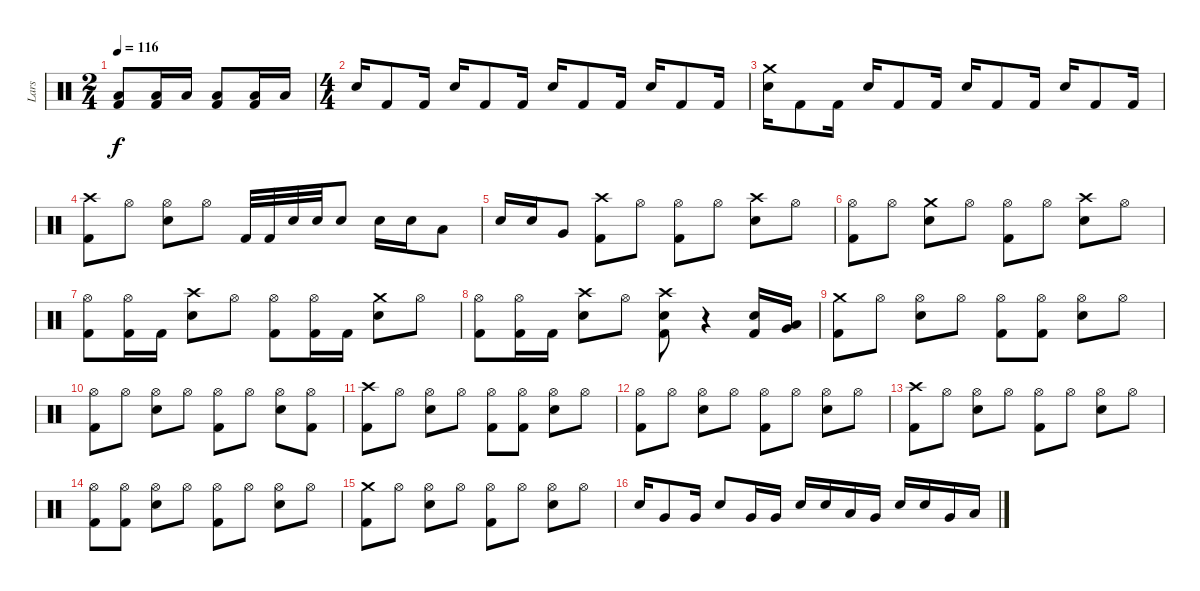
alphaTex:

\track ("Lars" "Lars") {instrument percussion}
\staff {score}
\articulation defaults
\ts (2 4)
\tempo 116
\clef neutral
\ks c
("Kick (hit) 2" "Low Floor Tom (hit)").8{dy f} ("Kick (hit) 2" "Low Floor Tom (hit)").16 "Low Floor Tom (hit)".16 ("Kick (hit) 2" "Low Floor Tom (hit)").8 ("Kick (hit) 2" "Low Floor Tom (hit)").16 "Low Floor Tom (hit)".16 |
\ts (4 4)
"Snare (hit) 2".16 "Kick (hit) 2".8 "Kick (hit) 2".16 "Snare (hit) 2".16 "Kick (hit) 2".8 "Kick (hit) 2".16 "Snare (hit) 2".16 "Kick (hit) 2".8 "Kick (hit) 2".16 "Snare (hit) 2".16 "Kick (hit) 2".8 "Kick (hit) 2".16 |
("Crash medium (hit)" "Snare (hit) 2").16 "Kick (hit) 2".8 "Kick (hit) 2".16 "Snare (hit) 2".16 "Kick (hit) 2".8 "Kick (hit) 2".16 "Snare (hit) 2".16 "Kick (hit) 2".8 "Kick (hit) 2".16 "Snare (hit) 2".16 "Kick (hit) 2".8 "Kick (hit) 2".16 |
("Crash high (hit)" "Kick (hit) 2").8 "Hi-Hat (open)".8 ("Snare (hit) 2" "Hi-Hat (open)").8 "Hi-Hat (open)".8 "Kick (hit) 2".32 "Kick (hit) 2".32 "Snare (hit) 2".32 "Snare (hit) 2".32 "Snare (hit) 2".8 "Snare (hit) 2".16 "Snare (hit) 2".16 "Low Tom (hit)".8 |
"Snare (hit) 2".16 "Snare (hit) 2".16 "Very Low Tom (hit)".8 ("Crash high (hit)" "Kick (hit) 2").8 "Hi-Hat (open)".8 ("Kick (hit) 2" "Hi-Hat (open)").8 "Hi-Hat (open)".8 ("Crash high (hit)" "Snare (hit) 2").8 "Hi-Hat (open)".8 |
("Kick (hit) 2" "Hi-Hat (open)").8 "Hi-Hat (open)".8 ("Snare (hit) 2" "Crash medium (hit)").8 "Hi-Hat (open)".8 ("Kick (hit) 2" "Hi-Hat (open)").8 "Hi-Hat (open)".8 ("Crash high (hit)" "Snare (hit) 2").8 "Hi-Hat (open)".8 |
("Kick (hit) 2" "Hi-Hat (open)").8 ("Hi-Hat (open)" "Kick (hit) 2").16 "Kick (hit) 2".16 ("Crash high (hit)" "Snare (hit) 2").8 "Hi-Hat (open)".8 ("Kick (hit) 2" "Hi-Hat (open)").8 ("Hi-Hat (open)" "Kick (hit) 2").16 "Kick (hit) 2".16 ("Snare (hit) 2" "Crash medium (hit)").8 "Hi-Hat (open)".8 |
("Kick (hit) 2" "Hi-Hat (open)").8 ("Hi-Hat (open)" "Kick (hit) 2").16 "Kick (hit) 2".16 ("Crash high (hit)" "Snare (hit) 2").8 "Hi-Hat (open)".8 ("Snare (hit) 2" "Crash high (hit)" "Kick (hit) 2").8 r.4 ("Kick (hit) 2" "Snare (hit) 2").16 ("Very Low Tom (hit)" "Low Tom (hit)").16 |
("Crash medium (hit)" "Kick (hit) 2").8 "Hi-Hat (open)".8 ("Hi-Hat (open)" "Snare (hit) 2").8 "Hi-Hat (open)".8 ("Kick (hit) 2" "Hi-Hat (open)").8 ("Kick (hit) 2" "Hi-Hat (open)").8 ("Snare (hit) 2" "Hi-Hat (open)").8 "Hi-Hat (open)".8 |
("Kick (hit) 2" "Hi-Hat (open)").8 "Hi-Hat (open)".8 ("Snare (hit) 2" "Hi-Hat (open)").8 "Hi-Hat (open)".8 ("Kick (hit) 2" "Hi-Hat (open)").8 "Hi-Hat (open)".8 ("Snare (hit) 2" "Hi-Hat (open)").8 ("Kick (hit) 2" "Hi-Hat (open)").8 |
("Crash high (hit)" "Kick (hit) 2").8 "Hi-Hat (open)".8 ("Snare (hit) 2" "Hi-Hat (open)").8 "Hi-Hat (open)".8 ("Hi-Hat (open)" "Kick (hit) 2").8 ("Hi-Hat (open)" "Kick (hit) 2").8 ("Hi-Hat (open)" "Snare (hit) 2").8 "Hi-Hat (open)".8 |
("Kick (hit) 2" "Hi-Hat (open)").8 "Hi-Hat (open)".8 ("Hi-Hat (open)" "Snare (hit) 2").8 "Hi-Hat (open)".8 ("Hi-Hat (open)" "Kick (hit) 2").8 "Hi-Hat (open)".8 ("Snare (hit) 2" "Hi-Hat (open)").8 "Hi-Hat (open)".8 |
("Crash high (hit)" "Kick (hit) 2").8 "Hi-Hat (open)".8 ("Snare (hit) 2" "Hi-Hat (open)").8 "Hi-Hat (open)".8 ("Hi-Hat (open)" "Kick (hit) 2").8 "Hi-Hat (open)".8 ("Snare (hit) 2" "Hi-Hat (open)").8 "Hi-Hat (open)".8 |
("Kick (hit) 2" "Hi-Hat (open)").8 ("Kick (hit) 2" "Hi-Hat (open)").8 ("Snare (hit) 2" "Hi-Hat (open)").8 "Hi-Hat (open)".8 ("Hi-Hat (open)" "Kick (hit) 2").8 "Hi-Hat (open)".8 ("Hi-Hat (open)" "Snare (hit) 2").8 "Hi-Hat (open)".8 |
("Crash medium (hit)" "Kick (hit) 2").8 "Hi-Hat (open)".8 ("Snare (hit) 2" "Hi-Hat (open)").8 "Hi-Hat (open)".8 ("Kick (hit) 2" "Hi-Hat (open)").8 "Hi-Hat (open)".8 ("Snare (hit) 2" "Hi-Hat (open)").8 "Hi-Hat (open)".8 |
"Snare (hit) 2".16 "Very Low Tom (hit)".8 "Very Low Tom (hit)".16 "Snare (hit) 2".8 "Very Low Tom (hit)".16 "Very Low Tom (hit)".16 "Snare (hit) 2".16 "Snare (hit) 2".16 "Low Tom (hit)".16 "Very Low Tom (hit)".16 "Snare (hit) 2".16 "Snare (hit) 2".16 "Very Low Tom (hit)".16 "Low Floor Tom (hit)".16
